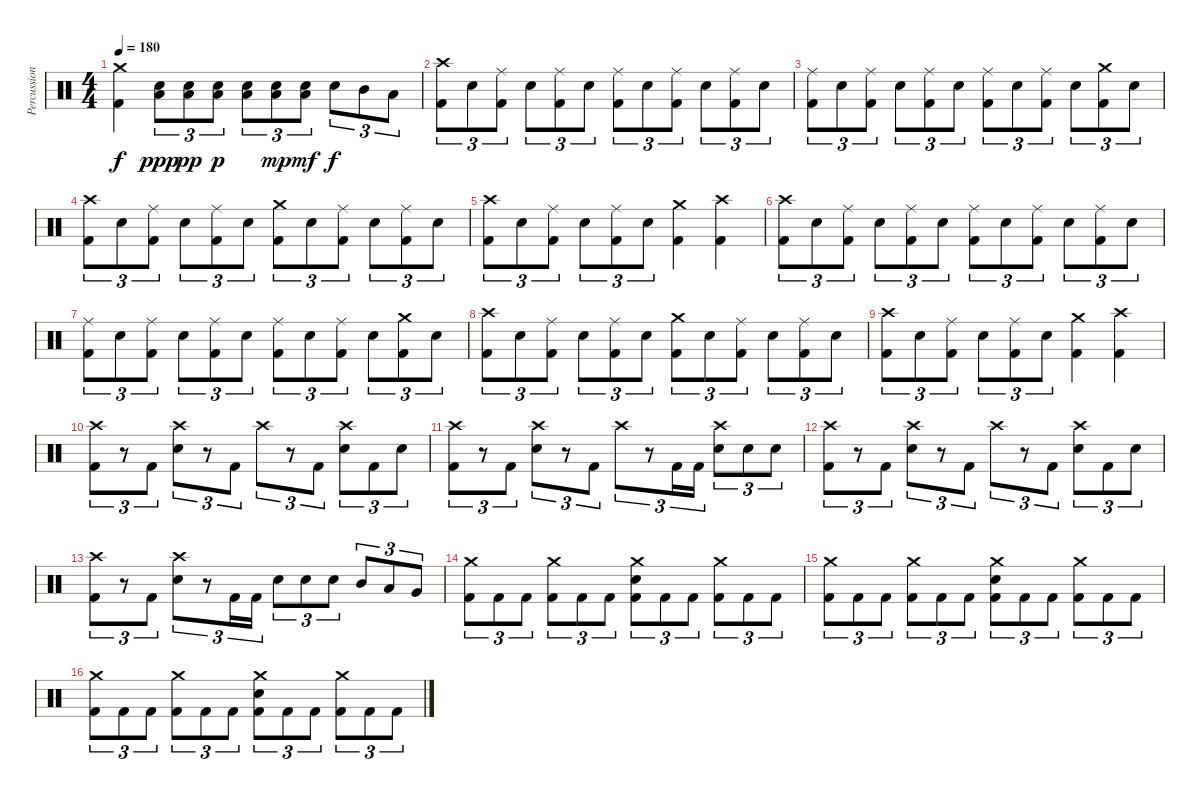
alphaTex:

\track ("Percussion" "Percussion") {instrument percussion}
\staff {score}
\articulation defaults
\ts (4 4)
\tempo 180
\clef neutral
\ks c
("Crash medium (hit)" "Kick (hit) 2").4{dy f} ("Electric Snare (hit)" "Low Floor Tom (hit)").8{tu (3 2) dy ppp} ("Electric Snare (hit)" "Low Floor Tom (hit)").8{tu (3 2) dy pp} ("Electric Snare (hit)" "Low Floor Tom (hit)").8{tu (3 2) dy p} ("Electric Snare (hit)" "Low Floor Tom (hit)").8{tu (3 2)} ("Electric Snare (hit)" "Low Floor Tom (hit)").8{tu (3 2) dy mp} ("Electric Snare (hit)" "Low Floor Tom (hit)").8{tu (3 2) dy mf} "Electric Snare (hit)".8{tu (3 2) dy f} "Mid Tom (hit)".8{tu (3 2)} "Low Tom (hit)".8{tu (3 2)} |
("Crash high (hit)" "Kick (hit) 2").8{tu (3 2)} "Electric Snare (hit)".8{tu (3 2)} ("Ride (middle)" "Kick (hit) 2").8{tu (3 2)} "Electric Snare (hit)".8{tu (3 2)} ("Ride (middle)" "Kick (hit) 2").8{tu (3 2)} "Electric Snare (hit)".8{tu (3 2)} ("Ride (middle)" "Kick (hit) 2").8{tu (3 2)} "Electric Snare (hit)".8{tu (3 2)} ("Ride (middle)" "Kick (hit) 2").8{tu (3 2)} "Electric Snare (hit)".8{tu (3 2)} ("Ride (middle)" "Kick (hit) 2").8{tu (3 2)} "Electric Snare (hit)".8{tu (3 2)} |
("Ride (middle)" "Kick (hit) 2").8{tu (3 2)} "Electric Snare (hit)".8{tu (3 2)} ("Ride (middle)" "Kick (hit) 2").8{tu (3 2)} "Electric Snare (hit)".8{tu (3 2)} ("Ride (middle)" "Kick (hit) 2").8{tu (3 2)} "Electric Snare (hit)".8{tu (3 2)} ("Ride (middle)" "Kick (hit) 2").8{tu (3 2)} "Electric Snare (hit)".8{tu (3 2)} ("Ride (middle)" "Kick (hit) 2").8{tu (3 2)} "Electric Snare (hit)".8{tu (3 2)} ("Crash medium (hit)" "Kick (hit) 2").8{tu (3 2)} "Electric Snare (hit)".8{tu (3 2)} |
("Crash high (hit)" "Kick (hit) 2").8{tu (3 2)} "Electric Snare (hit)".8{tu (3 2)} ("Ride (middle)" "Kick (hit) 2").8{tu (3 2)} "Electric Snare (hit)".8{tu (3 2)} ("Ride (middle)" "Kick (hit) 2").8{tu (3 2)} "Electric Snare (hit)".8{tu (3 2)} ("Crash medium (hit)" "Kick (hit) 2").8{tu (3 2)} "Electric Snare (hit)".8{tu (3 2)} ("Ride (middle)" "Kick (hit) 2").8{tu (3 2)} "Electric Snare (hit)".8{tu (3 2)} ("Ride (middle)" "Kick (hit) 2").8{tu (3 2)} "Electric Snare (hit)".8{tu (3 2)} |
("Crash high (hit)" "Kick (hit) 2").8{tu (3 2)} "Electric Snare (hit)".8{tu (3 2)} ("Ride (middle)" "Kick (hit) 2").8{tu (3 2)} "Electric Snare (hit)".8{tu (3 2)} ("Ride (middle)" "Kick (hit) 2").8{tu (3 2)} "Electric Snare (hit)".8{tu (3 2)} ("Crash medium (hit)" "Kick (hit) 2").4 ("Crash high (hit)" "Kick (hit) 2").4 |
("Crash high (hit)" "Kick (hit) 2").8{tu (3 2)} "Electric Snare (hit)".8{tu (3 2)} ("Ride (middle)" "Kick (hit) 2").8{tu (3 2)} "Electric Snare (hit)".8{tu (3 2)} ("Ride (middle)" "Kick (hit) 2").8{tu (3 2)} "Electric Snare (hit)".8{tu (3 2)} ("Ride (middle)" "Kick (hit) 2").8{tu (3 2)} "Electric Snare (hit)".8{tu (3 2)} ("Ride (middle)" "Kick (hit) 2").8{tu (3 2)} "Electric Snare (hit)".8{tu (3 2)} ("Ride (middle)" "Kick (hit) 2").8{tu (3 2)} "Electric Snare (hit)".8{tu (3 2)} |
("Ride (middle)" "Kick (hit) 2").8{tu (3 2)} "Electric Snare (hit)".8{tu (3 2)} ("Ride (middle)" "Kick (hit) 2").8{tu (3 2)} "Electric Snare (hit)".8{tu (3 2)} ("Ride (middle)" "Kick (hit) 2").8{tu (3 2)} "Electric Snare (hit)".8{tu (3 2)} ("Ride (middle)" "Kick (hit) 2").8{tu (3 2)} "Electric Snare (hit)".8{tu (3 2)} ("Ride (middle)" "Kick (hit) 2").8{tu (3 2)} "Electric Snare (hit)".8{tu (3 2)} ("Crash medium (hit)" "Kick (hit) 2").8{tu (3 2)} "Electric Snare (hit)".8{tu (3 2)} |
("Crash high (hit)" "Kick (hit) 2").8{tu (3 2)} "Electric Snare (hit)".8{tu (3 2)} ("Ride (middle)" "Kick (hit) 2").8{tu (3 2)} "Electric Snare (hit)".8{tu (3 2)} ("Ride (middle)" "Kick (hit) 2").8{tu (3 2)} "Electric Snare (hit)".8{tu (3 2)} ("Crash medium (hit)" "Kick (hit) 2").8{tu (3 2)} "Electric Snare (hit)".8{tu (3 2)} ("Ride (middle)" "Kick (hit) 2").8{tu (3 2)} "Electric Snare (hit)".8{tu (3 2)} ("Ride (middle)" "Kick (hit) 2").8{tu (3 2)} "Electric Snare (hit)".8{tu (3 2)} |
("Crash high (hit)" "Kick (hit) 2").8{tu (3 2)} "Electric Snare (hit)".8{tu (3 2)} ("Ride (middle)" "Kick (hit) 2").8{tu (3 2)} "Electric Snare (hit)".8{tu (3 2)} ("Ride (middle)" "Kick (hit) 2").8{tu (3 2)} "Electric Snare (hit)".8{tu (3 2)} ("Crash medium (hit)" "Kick (hit) 2").4 ("Crash high (hit)" "Kick (hit) 2").4 |
("Crash high (hit)" "Kick (hit) 2").8{tu (3 2)} r.8{tu (3 2)} "Kick (hit) 2".8{tu (3 2)} ("Crash high (hit)" "Electric Snare (hit)").8{tu (3 2)} r.8{tu (3 2)} "Kick (hit) 2".8{tu (3 2)} "Crash high (hit)".8{tu (3 2)} r.8{tu (3 2)} "Kick (hit) 2".8{tu (3 2)} ("Crash high (hit)" "Electric Snare (hit)").8{tu (3 2)} "Kick (hit) 2".8{tu (3 2)} "Electric Snare (hit)".8{tu (3 2)} |
("Crash high (hit)" "Kick (hit) 2").8{tu (3 2)} r.8{tu (3 2)} "Kick (hit) 2".8{tu (3 2)} ("Crash high (hit)" "Electric Snare (hit)").8{tu (3 2)} r.8{tu (3 2)} "Kick (hit) 2".8{tu (3 2)} "Crash high (hit)".8{tu (3 2)} r.8{tu (3 2)} "Kick (hit) 2".16{tu (3 2)} "Kick (hit) 2".16{tu (3 2)} ("Crash high (hit)" "Electric Snare (hit)").8{tu (3 2)} "Electric Snare (hit)".8{tu (3 2)} "Electric Snare (hit)".8{tu (3 2)} |
("Crash high (hit)" "Kick (hit) 2").8{tu (3 2)} r.8{tu (3 2)} "Kick (hit) 2".8{tu (3 2)} ("Crash high (hit)" "Electric Snare (hit)").8{tu (3 2)} r.8{tu (3 2)} "Kick (hit) 2".8{tu (3 2)} "Crash high (hit)".8{tu (3 2)} r.8{tu (3 2)} "Kick (hit) 2".8{tu (3 2)} ("Crash high (hit)" "Electric Snare (hit)").8{tu (3 2)} "Kick (hit) 2".8{tu (3 2)} "Electric Snare (hit)".8{tu (3 2)} |
("Crash high (hit)" "Kick (hit) 2").8{tu (3 2)} r.8{tu (3 2)} "Kick (hit) 2".8{tu (3 2)} ("Crash high (hit)" "Electric Snare (hit)").8{tu (3 2)} r.8{tu (3 2)} "Kick (hit) 2".16{tu (3 2)} "Kick (hit) 2".16{tu (3 2)} "Electric Snare (hit)".8{tu (3 2)} "Electric Snare (hit)".8{tu (3 2)} "Electric Snare (hit)".8{tu (3 2)} "Mid Tom (hit)".8{tu (3 2)} "Low Tom (hit)".8{tu (3 2)} "Very Low Tom (hit)".8{tu (3 2)} |
("Crash medium (hit)" "Kick (hit) 2").8{tu (3 2)} "Kick (hit) 2".8{tu (3 2)} "Kick (hit) 2".8{tu (3 2)} ("Crash medium (hit)" "Kick (hit) 2").8{tu (3 2)} "Kick (hit) 2".8{tu (3 2)} "Kick (hit) 2".8{tu (3 2)} ("Crash medium (hit)" "Electric Snare (hit)" "Kick (hit) 2").8{tu (3 2)} "Kick (hit) 2".8{tu (3 2)} "Kick (hit) 2".8{tu (3 2)} ("Crash medium (hit)" "Kick (hit) 2").8{tu (3 2)} "Kick (hit) 2".8{tu (3 2)} "Kick (hit) 2".8{tu (3 2)} |
("Crash medium (hit)" "Kick (hit) 2").8{tu (3 2)} "Kick (hit) 2".8{tu (3 2)} "Kick (hit) 2".8{tu (3 2)} ("Crash medium (hit)" "Kick (hit) 2").8{tu (3 2)} "Kick (hit) 2".8{tu (3 2)} "Kick (hit) 2".8{tu (3 2)} ("Crash medium (hit)" "Electric Snare (hit)" "Kick (hit) 2").8{tu (3 2)} "Kick (hit) 2".8{tu (3 2)} "Kick (hit) 2".8{tu (3 2)} ("Crash medium (hit)" "Kick (hit) 2").8{tu (3 2)} "Kick (hit) 2".8{tu (3 2)} "Kick (hit) 2".8{tu (3 2)} |
("Crash medium (hit)" "Kick (hit) 2").8{tu (3 2)} "Kick (hit) 2".8{tu (3 2)} "Kick (hit) 2".8{tu (3 2)} ("Crash medium (hit)" "Kick (hit) 2").8{tu (3 2)} "Kick (hit) 2".8{tu (3 2)} "Kick (hit) 2".8{tu (3 2)} ("Crash medium (hit)" "Electric Snare (hit)" "Kick (hit) 2").8{tu (3 2)} "Kick (hit) 2".8{tu (3 2)} "Kick (hit) 2".8{tu (3 2)} ("Crash medium (hit)" "Kick (hit) 2").8{tu (3 2)} "Kick (hit) 2".8{tu (3 2)} "Kick (hit) 2".8{tu (3 2)}
